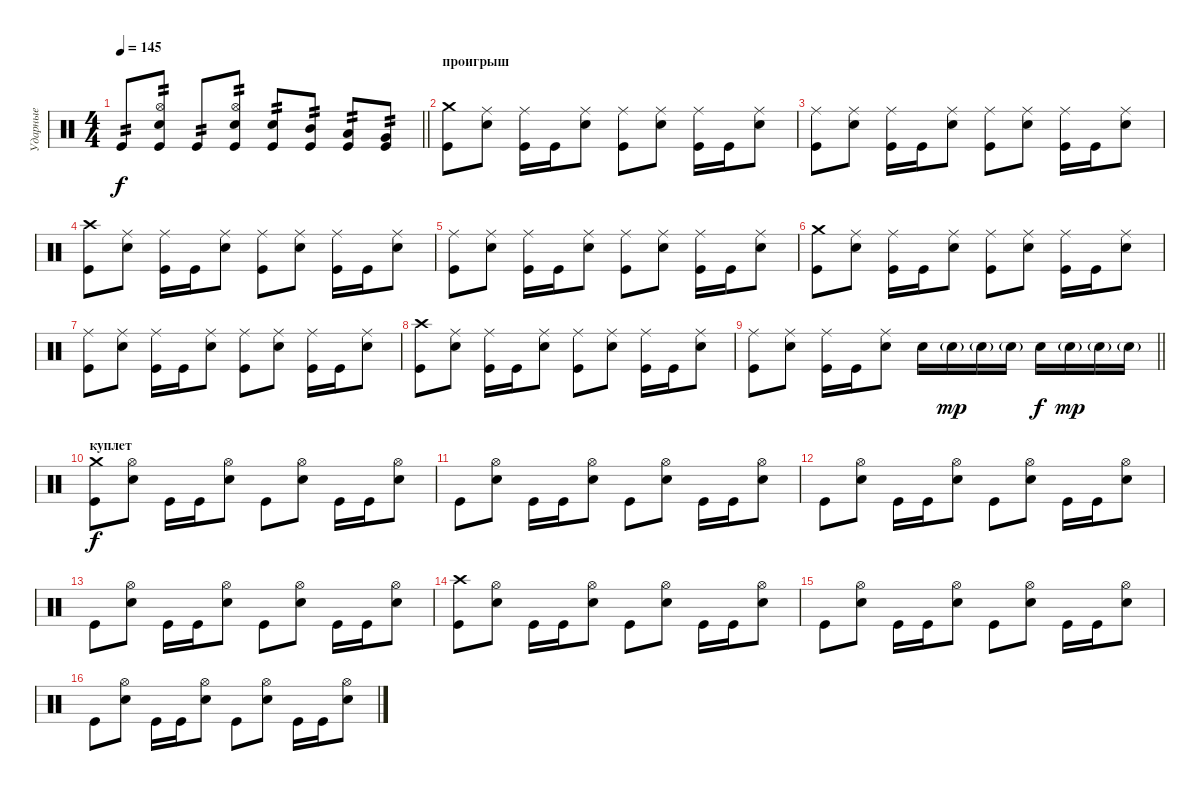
\track ("Ударные" "Ударные") {instrument percussion}
\staff {score}
\articulation defaults
\ts (4 4)
\tempo 145
\clef neutral
\barLineRight lightlight
\ks c "Kick (hit)".8{tp 2 dy f}
("Hi-Hat (open)" "Electric Snare (hit)" "Kick (hit)").8{tp 2} "Kick (hit)".8{tp 2} ("Hi-Hat (open)" "Electric Snare (hit)" "Kick (hit)").8{tp 2} ("Electric Snare (hit)" "Kick (hit)").8{tp 2} ("Mid Tom (hit)" "Kick (hit)").8{tp 2} ("Low Tom (hit)" "Kick (hit)").8{tp 2} ("Very Low Tom (hit)" "Kick (hit)").8{tp 2} |
\section ("" "проигрыш")
("Crash medium (hit)" "Kick (hit)").8 ("Ride (middle)" "Electric Snare (hit)").8 ("Ride (middle)" "Kick (hit)").16 "Kick (hit)".16 ("Ride (middle)" "Electric Snare (hit)").8 ("Ride (middle)" "Kick (hit)").8 ("Ride (middle)" "Electric Snare (hit)").8 ("Ride (middle)" "Kick (hit)").16 "Kick (hit)".16 ("Ride (middle)" "Electric Snare (hit)").8 |
("Ride (middle)" "Kick (hit)").8 ("Ride (middle)" "Electric Snare (hit)").8 ("Ride (middle)" "Kick (hit)").16 "Kick (hit)".16 ("Ride (middle)" "Electric Snare (hit)").8 ("Ride (middle)" "Kick (hit)").8 ("Ride (middle)" "Electric Snare (hit)").8 ("Ride (middle)" "Kick (hit)").16 "Kick (hit)".16 ("Ride (middle)" "Electric Snare (hit)").8 |
("Crash high (hit)" "Kick (hit)").8 ("Ride (middle)" "Electric Snare (hit)").8 ("Ride (middle)" "Kick (hit)").16 "Kick (hit)".16 ("Ride (middle)" "Electric Snare (hit)").8 ("Ride (middle)" "Kick (hit)").8 ("Ride (middle)" "Electric Snare (hit)").8 ("Ride (middle)" "Kick (hit)").16 "Kick (hit)".16 ("Ride (middle)" "Electric Snare (hit)").8 |
("Ride (middle)" "Kick (hit)").8 ("Ride (middle)" "Electric Snare (hit)").8 ("Ride (middle)" "Kick (hit)").16 "Kick (hit)".16 ("Ride (middle)" "Electric Snare (hit)").8 ("Ride (middle)" "Kick (hit)").8 ("Ride (middle)" "Electric Snare (hit)").8 ("Ride (middle)" "Kick (hit)").16 "Kick (hit)".16 ("Ride (middle)" "Electric Snare (hit)").8 |
("Crash medium (hit)" "Kick (hit)").8 ("Ride (middle)" "Electric Snare (hit)").8 ("Ride (middle)" "Kick (hit)").16 "Kick (hit)".16 ("Ride (middle)" "Electric Snare (hit)").8 ("Ride (middle)" "Kick (hit)").8 ("Ride (middle)" "Electric Snare (hit)").8 ("Ride (middle)" "Kick (hit)").16 "Kick (hit)".16 ("Ride (middle)" "Electric Snare (hit)").8 |
("Ride (middle)" "Kick (hit)").8 ("Ride (middle)" "Electric Snare (hit)").8 ("Ride (middle)" "Kick (hit)").16 "Kick (hit)".16 ("Ride (middle)" "Electric Snare (hit)").8 ("Ride (middle)" "Kick (hit)").8 ("Ride (middle)" "Electric Snare (hit)").8 ("Ride (middle)" "Kick (hit)").16 "Kick (hit)".16 ("Ride (middle)" "Electric Snare (hit)").8 |
("Crash high (hit)" "Kick (hit)").8 ("Ride (middle)" "Electric Snare (hit)").8 ("Ride (middle)" "Kick (hit)").16 "Kick (hit)".16 ("Ride (middle)" "Electric Snare (hit)").8 ("Ride (middle)" "Kick (hit)").8 ("Ride (middle)" "Electric Snare (hit)").8 ("Ride (middle)" "Kick (hit)").16 "Kick (hit)".16 ("Ride (middle)" "Electric Snare (hit)").8 |
\barLineRight lightlight
("Ride (middle)" "Kick (hit)").8 ("Ride (middle)" "Electric Snare (hit)").8 ("Ride (middle)" "Kick (hit)").16 "Kick (hit)".16 ("Ride (middle)" "Electric Snare (hit)").8 "Electric Snare (hit)".16 "Electric Snare (hit)"{g}.16{dy mp} "Electric Snare (hit)"{g}.16 "Electric Snare (hit)"{g}.16 "Electric Snare (hit)".16{dy f} "Electric Snare (hit)"{g}.16{dy mp} "Electric Snare (hit)"{g}.16 "Electric Snare (hit)"{g}.16 |
\section ("" "куплет")
("Crash medium (hit)" "Kick (hit)").8{dy f} ("Hi-Hat (open)" "Electric Snare (hit)").8 "Kick (hit)".16 "Kick (hit)".16 ("Hi-Hat (open)" "Electric Snare (hit)").8 "Kick (hit)".8 ("Hi-Hat (open)" "Electric Snare (hit)").8 "Kick (hit)".16 "Kick (hit)".16 ("Hi-Hat (open)" "Electric Snare (hit)").8 |
"Kick (hit)".8 ("Hi-Hat (open)" "Electric Snare (hit)").8 "Kick (hit)".16 "Kick (hit)".16 ("Hi-Hat (open)" "Electric Snare (hit)").8 "Kick (hit)".8 ("Hi-Hat (open)" "Electric Snare (hit)").8 "Kick (hit)".16 "Kick (hit)".16 ("Hi-Hat (open)" "Electric Snare (hit)").8 |
"Kick (hit)".8 ("Hi-Hat (open)" "Electric Snare (hit)").8 "Kick (hit)".16 "Kick (hit)".16 ("Hi-Hat (open)" "Electric Snare (hit)").8 "Kick (hit)".8 ("Hi-Hat (open)" "Electric Snare (hit)").8 "Kick (hit)".16 "Kick (hit)".16 ("Hi-Hat (open)" "Electric Snare (hit)").8 |
"Kick (hit)".8 ("Hi-Hat (open)" "Electric Snare (hit)").8 "Kick (hit)".16 "Kick (hit)".16 ("Hi-Hat (open)" "Electric Snare (hit)").8 "Kick (hit)".8 ("Hi-Hat (open)" "Electric Snare (hit)").8 "Kick (hit)".16 "Kick (hit)".16 ("Hi-Hat (open)" "Electric Snare (hit)").8 |
("Crash high (hit)" "Kick (hit)").8 ("Hi-Hat (open)" "Electric Snare (hit)").8 "Kick (hit)".16 "Kick (hit)".16 ("Hi-Hat (open)" "Electric Snare (hit)").8 "Kick (hit)".8 ("Hi-Hat (open)" "Electric Snare (hit)").8 "Kick (hit)".16 "Kick (hit)".16 ("Hi-Hat (open)" "Electric Snare (hit)").8 |
"Kick (hit)".8 ("Hi-Hat (open)" "Electric Snare (hit)").8 "Kick (hit)".16 "Kick (hit)".16 ("Hi-Hat (open)" "Electric Snare (hit)").8 "Kick (hit)".8 ("Hi-Hat (open)" "Electric Snare (hit)").8 "Kick (hit)".16 "Kick (hit)".16 ("Hi-Hat (open)" "Electric Snare (hit)").8 |
"Kick (hit)".8 ("Hi-Hat (open)" "Electric Snare (hit)").8 "Kick (hit)".16 "Kick (hit)".16 ("Hi-Hat (open)" "Electric Snare (hit)").8 "Kick (hit)".8 ("Hi-Hat (open)" "Electric Snare (hit)").8 "Kick (hit)".16 "Kick (hit)".16 ("Hi-Hat (open)" "Electric Snare (hit)").8
